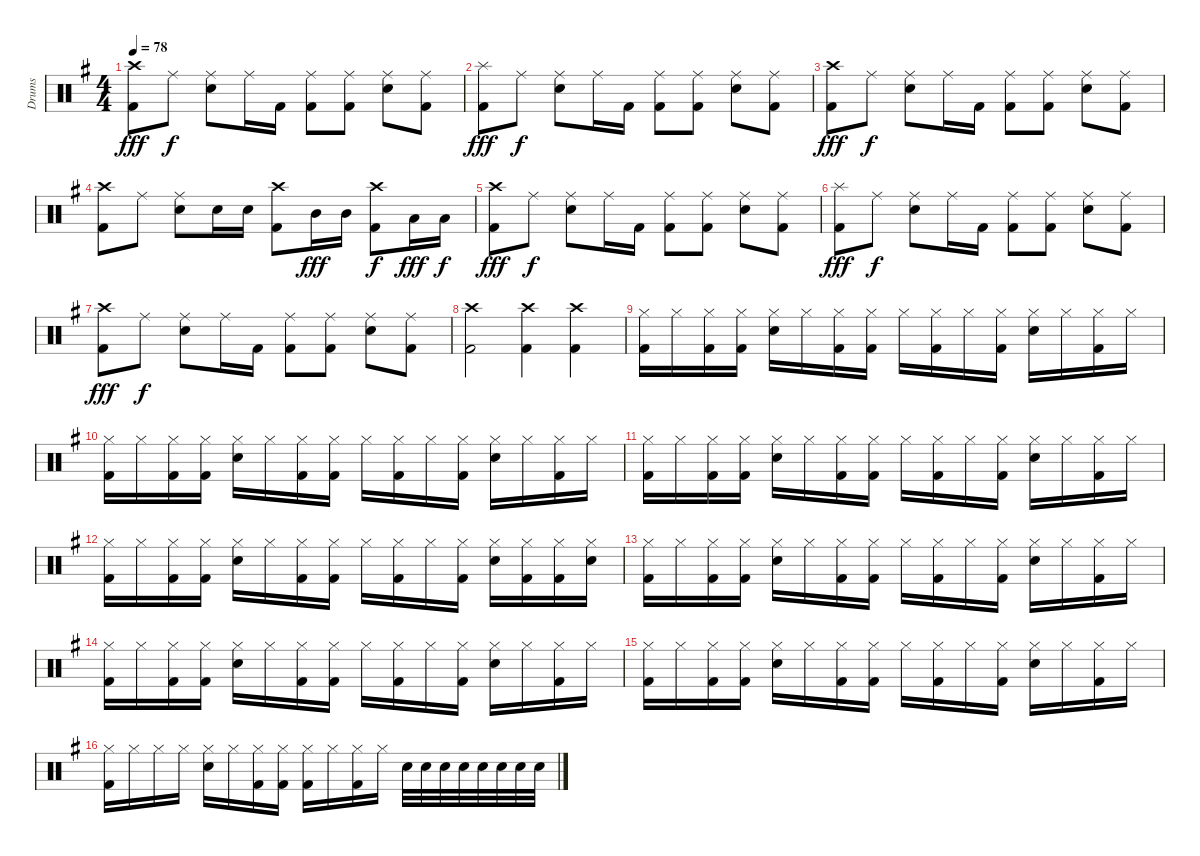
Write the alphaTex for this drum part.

\track ("Drums" "Drums") {instrument percussion}
\staff {score}
\articulation defaults
\ts (4 4)
\tempo 78
\clef neutral
\ks g
("Crash high (hit)" "Kick (hit) 2").8{dy fff} "Ride (middle)".8{dy f} ("Ride (middle)" "Snare (hit) 2").8 "Ride (middle)".16 "Kick (hit) 2".16 ("Ride (middle)" "Kick (hit) 2").8 ("Ride (middle)" "Kick (hit) 2").8 ("Ride (middle)" "Snare (hit) 2").8 ("Ride (middle)" "Kick (hit) 2").8 |
("Splash (hit)" "Kick (hit) 2").8{dy fff} "Ride (middle)".8{dy f} ("Ride (middle)" "Snare (hit) 2").8 "Ride (middle)".16 "Kick (hit) 2".16 ("Ride (middle)" "Kick (hit) 2").8 ("Ride (middle)" "Kick (hit) 2").8 ("Ride (middle)" "Snare (hit) 2").8 ("Ride (middle)" "Kick (hit) 2").8 |
("Crash high (hit)" "Kick (hit) 2").8{dy fff} "Ride (middle)".8{dy f} ("Ride (middle)" "Snare (hit) 2").8 "Ride (middle)".16 "Kick (hit) 2".16 ("Ride (middle)" "Kick (hit) 2").8 ("Ride (middle)" "Kick (hit) 2").8 ("Ride (middle)" "Snare (hit) 2").8 ("Ride (middle)" "Kick (hit) 2").8 |
("Crash high (hit)" "Kick (hit) 2").8 "Ride (middle)".8 ("Ride (middle)" "Snare (hit) 2").8 "Electric Snare (hit)".16 "Electric Snare (hit)".16 ("Crash high (hit)" "Kick (hit) 2").8 "Mid Tom (hit)".16{dy fff} "Mid Tom (hit)".16 ("Crash high (hit)" "Kick (hit) 2").8{dy f} "Low Tom (hit)".16{dy fff} "Low Tom (hit)".16{dy f} |
("Crash high (hit)" "Kick (hit) 2").8{dy fff} "Ride (middle)".8{dy f} ("Ride (middle)" "Snare (hit) 2").8 "Ride (middle)".16 "Kick (hit) 2".16 ("Ride (middle)" "Kick (hit) 2").8 ("Ride (middle)" "Kick (hit) 2").8 ("Ride (middle)" "Snare (hit) 2").8 ("Ride (middle)" "Kick (hit) 2").8 |
("Splash (hit)" "Kick (hit) 2").8{dy fff} "Ride (middle)".8{dy f} ("Ride (middle)" "Snare (hit) 2").8 "Ride (middle)".16 "Kick (hit) 2".16 ("Ride (middle)" "Kick (hit) 2").8 ("Ride (middle)" "Kick (hit) 2").8 ("Ride (middle)" "Snare (hit) 2").8 ("Ride (middle)" "Kick (hit) 2").8 |
("Crash high (hit)" "Kick (hit) 2").8{dy fff} "Ride (middle)".8{dy f} ("Ride (middle)" "Snare (hit) 2").8 "Ride (middle)".16 "Kick (hit) 2".16 ("Ride (middle)" "Kick (hit) 2").8 ("Ride (middle)" "Kick (hit) 2").8 ("Ride (middle)" "Snare (hit) 2").8 ("Ride (middle)" "Kick (hit) 2").8 |
("Crash high (hit)" "Kick (hit) 2").2 ("Crash high (hit)" "Kick (hit) 2").4 ("Crash high (hit)" "Kick (hit) 2").4 |
("Hi-Hat (closed)" "Kick (hit) 2").16 "Hi-Hat (closed)".16 ("Hi-Hat (closed)" "Kick (hit) 2").16 ("Hi-Hat (closed)" "Kick (hit) 2").16 ("Hi-Hat (closed)" "Snare (hit) 2").16 "Hi-Hat (closed)".16 ("Hi-Hat (closed)" "Kick (hit) 2").16 ("Hi-Hat (closed)" "Kick (hit) 2").16 "Hi-Hat (closed)".16 ("Hi-Hat (closed)" "Kick (hit) 2").16 "Hi-Hat (closed)".16 ("Hi-Hat (closed)" "Kick (hit) 2").16 ("Hi-Hat (closed)" "Snare (hit) 2").16 "Hi-Hat (closed)".16 ("Hi-Hat (closed)" "Kick (hit) 2").16 "Hi-Hat (closed)".16 |
("Hi-Hat (closed)" "Kick (hit) 2").16 "Hi-Hat (closed)".16 ("Hi-Hat (closed)" "Kick (hit) 2").16 ("Hi-Hat (closed)" "Kick (hit) 2").16 ("Hi-Hat (closed)" "Snare (hit) 2").16 "Hi-Hat (closed)".16 ("Hi-Hat (closed)" "Kick (hit) 2").16 ("Hi-Hat (closed)" "Kick (hit) 2").16 "Hi-Hat (closed)".16 ("Hi-Hat (closed)" "Kick (hit) 2").16 "Hi-Hat (closed)".16 ("Hi-Hat (closed)" "Kick (hit) 2").16 ("Hi-Hat (closed)" "Snare (hit) 2").16 "Hi-Hat (closed)".16 ("Hi-Hat (closed)" "Kick (hit) 2").16 "Hi-Hat (closed)".16 |
("Hi-Hat (closed)" "Kick (hit) 2").16 "Hi-Hat (closed)".16 ("Hi-Hat (closed)" "Kick (hit) 2").16 ("Hi-Hat (closed)" "Kick (hit) 2").16 ("Hi-Hat (closed)" "Snare (hit) 2").16 "Hi-Hat (closed)".16 ("Hi-Hat (closed)" "Kick (hit) 2").16 ("Hi-Hat (closed)" "Kick (hit) 2").16 "Hi-Hat (closed)".16 ("Hi-Hat (closed)" "Kick (hit) 2").16 "Hi-Hat (closed)".16 ("Hi-Hat (closed)" "Kick (hit) 2").16 ("Hi-Hat (closed)" "Snare (hit) 2").16 "Hi-Hat (closed)".16 ("Hi-Hat (closed)" "Kick (hit) 2").16 "Hi-Hat (closed)".16 |
("Hi-Hat (closed)" "Kick (hit) 2").16 "Hi-Hat (closed)".16 ("Hi-Hat (closed)" "Kick (hit) 2").16 ("Hi-Hat (closed)" "Kick (hit) 2").16 ("Hi-Hat (closed)" "Snare (hit) 2").16 "Hi-Hat (closed)".16 ("Hi-Hat (closed)" "Kick (hit) 2").16 ("Hi-Hat (closed)" "Kick (hit) 2").16 "Hi-Hat (closed)".16 ("Hi-Hat (closed)" "Kick (hit) 2").16 "Hi-Hat (closed)".16 ("Hi-Hat (closed)" "Kick (hit) 2").16 ("Hi-Hat (closed)" "Snare (hit) 2").16 ("Hi-Hat (closed)" "Kick (hit) 2").16 ("Hi-Hat (closed)" "Kick (hit) 2").16 ("Hi-Hat (closed)" "Snare (hit) 2").16 |
("Hi-Hat (closed)" "Kick (hit) 2").16 "Hi-Hat (closed)".16 ("Hi-Hat (closed)" "Kick (hit) 2").16 ("Hi-Hat (closed)" "Kick (hit) 2").16 ("Hi-Hat (closed)" "Snare (hit) 2").16 "Hi-Hat (closed)".16 ("Hi-Hat (closed)" "Kick (hit) 2").16 ("Hi-Hat (closed)" "Kick (hit) 2").16 "Hi-Hat (closed)".16 ("Hi-Hat (closed)" "Kick (hit) 2").16 "Hi-Hat (closed)".16 ("Hi-Hat (closed)" "Kick (hit) 2").16 ("Hi-Hat (closed)" "Snare (hit) 2").16 "Hi-Hat (closed)".16 ("Hi-Hat (closed)" "Kick (hit) 2").16 "Hi-Hat (closed)".16 |
("Hi-Hat (closed)" "Kick (hit) 2").16 "Hi-Hat (closed)".16 ("Hi-Hat (closed)" "Kick (hit) 2").16 ("Hi-Hat (closed)" "Kick (hit) 2").16 ("Hi-Hat (closed)" "Snare (hit) 2").16 "Hi-Hat (closed)".16 ("Hi-Hat (closed)" "Kick (hit) 2").16 ("Hi-Hat (closed)" "Kick (hit) 2").16 "Hi-Hat (closed)".16 ("Hi-Hat (closed)" "Kick (hit) 2").16 "Hi-Hat (closed)".16 ("Hi-Hat (closed)" "Kick (hit) 2").16 ("Hi-Hat (closed)" "Snare (hit) 2").16 "Hi-Hat (closed)".16 ("Hi-Hat (closed)" "Kick (hit) 2").16 "Hi-Hat (closed)".16 |
("Hi-Hat (closed)" "Kick (hit) 2").16 "Hi-Hat (closed)".16 ("Hi-Hat (closed)" "Kick (hit) 2").16 ("Hi-Hat (closed)" "Kick (hit) 2").16 ("Hi-Hat (closed)" "Snare (hit) 2").16 "Hi-Hat (closed)".16 ("Hi-Hat (closed)" "Kick (hit) 2").16 ("Hi-Hat (closed)" "Kick (hit) 2").16 "Hi-Hat (closed)".16 ("Hi-Hat (closed)" "Kick (hit) 2").16 "Hi-Hat (closed)".16 ("Hi-Hat (closed)" "Kick (hit) 2").16 ("Hi-Hat (closed)" "Snare (hit) 2").16 "Hi-Hat (closed)".16 ("Hi-Hat (closed)" "Kick (hit) 2").16 "Hi-Hat (closed)".16 |
("Hi-Hat (closed)" "Kick (hit) 2").16 "Hi-Hat (closed)".16 "Hi-Hat (closed)".16 "Hi-Hat (closed)".16 ("Hi-Hat (closed)" "Snare (hit) 2").16 "Hi-Hat (closed)".16 ("Hi-Hat (closed)" "Kick (hit) 2").16 ("Hi-Hat (closed)" "Kick (hit) 2").16 ("Hi-Hat (closed)" "Kick (hit) 2").16 "Hi-Hat (closed)".16 ("Hi-Hat (closed)" "Kick (hit) 2").16 "Hi-Hat (closed)".16 "Snare (hit) 2".32 "Snare (hit) 2".32 "Snare (hit) 2".32 "Snare (hit) 2".32 "Snare (hit) 2".32 "Snare (hit) 2".32 "Snare (hit) 2".32 "Snare (hit) 2".32
